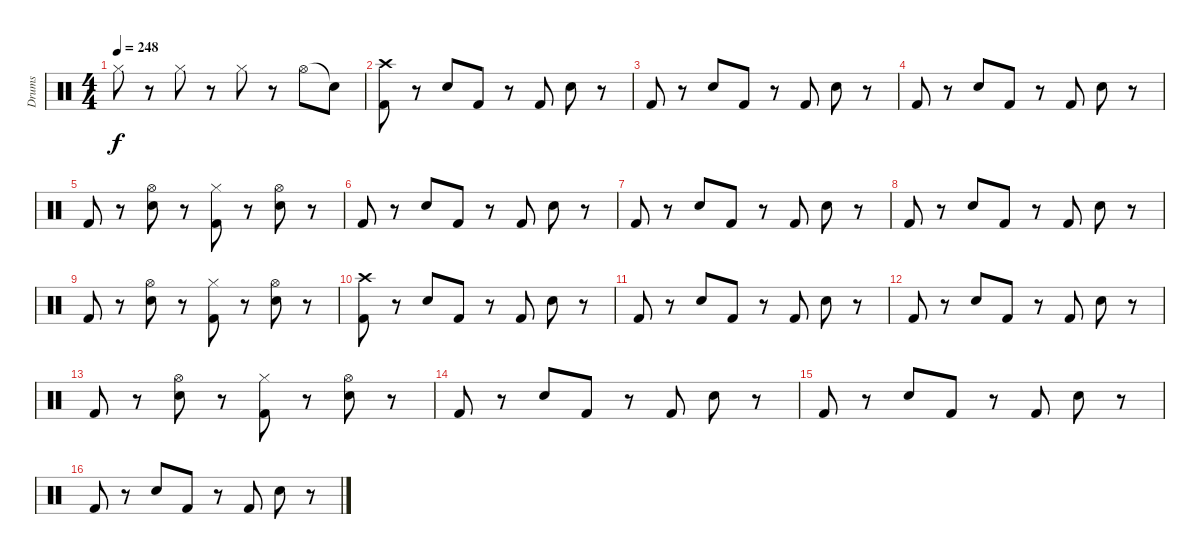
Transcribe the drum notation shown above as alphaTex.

\track ("Drums" "Drums") {instrument percussion}
\staff {score}
\articulation defaults
\ts (4 4)
\tempo 248
\clef neutral
\ks c "Hi-Hat (closed)".8{dy f}
r.8 "Hi-Hat (closed)".8 r.8 "Hi-Hat (closed)".8 r.8 "Hi-Hat (open)".8 "Snare (hit)"{t}.8 |
("Crash high (hit)" "Kick (hit) 2").8 r.8 "Electric Snare (hit)".8 "Kick (hit) 2".8 r.8 "Kick (hit) 2".8 "Electric Snare (hit)".8 r.8 |
"Kick (hit) 2".8 r.8 "Electric Snare (hit)".8 "Kick (hit) 2".8 r.8 "Kick (hit) 2".8 "Electric Snare (hit)".8 r.8 |
"Kick (hit) 2".8 r.8 "Electric Snare (hit)".8 "Kick (hit) 2".8 r.8 "Kick (hit) 2".8 "Electric Snare (hit)".8 r.8 |
"Kick (hit) 2".8 r.8 ("Hi-Hat (open)" "Electric Snare (hit)").8 r.8 ("Hi-Hat (closed)" "Kick (hit) 2").8 r.8 ("Hi-Hat (open)" "Electric Snare (hit)").8 r.8 |
"Kick (hit) 2".8 r.8 "Electric Snare (hit)".8 "Kick (hit) 2".8 r.8 "Kick (hit) 2".8 "Electric Snare (hit)".8 r.8 |
"Kick (hit) 2".8 r.8 "Electric Snare (hit)".8 "Kick (hit) 2".8 r.8 "Kick (hit) 2".8 "Electric Snare (hit)".8 r.8 |
"Kick (hit) 2".8 r.8 "Electric Snare (hit)".8 "Kick (hit) 2".8 r.8 "Kick (hit) 2".8 "Electric Snare (hit)".8 r.8 |
"Kick (hit) 2".8 r.8 ("Hi-Hat (open)" "Electric Snare (hit)").8 r.8 ("Hi-Hat (closed)" "Kick (hit) 2").8 r.8 ("Hi-Hat (open)" "Electric Snare (hit)").8 r.8 |
("Crash high (hit)" "Kick (hit) 2").8 r.8 "Electric Snare (hit)".8 "Kick (hit) 2".8 r.8 "Kick (hit) 2".8 "Electric Snare (hit)".8 r.8 |
"Kick (hit) 2".8 r.8 "Electric Snare (hit)".8 "Kick (hit) 2".8 r.8 "Kick (hit) 2".8 "Electric Snare (hit)".8 r.8 |
"Kick (hit) 2".8 r.8 "Electric Snare (hit)".8 "Kick (hit) 2".8 r.8 "Kick (hit) 2".8 "Electric Snare (hit)".8 r.8 |
"Kick (hit) 2".8 r.8 ("Hi-Hat (open)" "Electric Snare (hit)").8 r.8 ("Hi-Hat (closed)" "Kick (hit) 2").8 r.8 ("Hi-Hat (open)" "Electric Snare (hit)").8 r.8 |
"Kick (hit) 2".8 r.8 "Electric Snare (hit)".8 "Kick (hit) 2".8 r.8 "Kick (hit) 2".8 "Electric Snare (hit)".8 r.8 |
"Kick (hit) 2".8 r.8 "Electric Snare (hit)".8 "Kick (hit) 2".8 r.8 "Kick (hit) 2".8 "Electric Snare (hit)".8 r.8 |
"Kick (hit) 2".8 r.8 "Electric Snare (hit)".8 "Kick (hit) 2".8 r.8 "Kick (hit) 2".8 "Electric Snare (hit)".8 r.8
